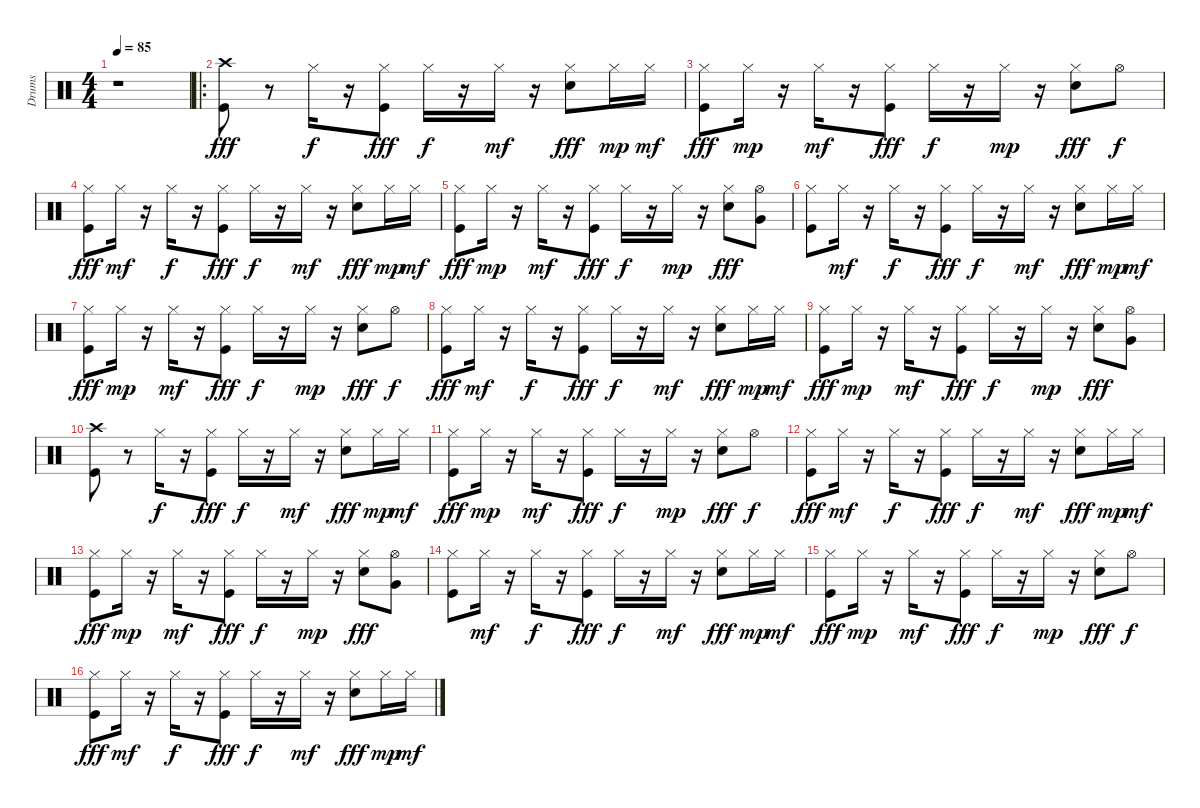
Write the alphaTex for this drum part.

\track ("Drums" "Drums") {instrument percussion}
\staff {score}
\articulation defaults
\ts (4 4)
\tempo 85
\clef neutral
\ks c
r.1{dy fff} |
\ro
("Crash high (hit)" "Kick (hit)").8 r.8 "Hi-Hat (closed)".16{dy f} r.16 ("Hi-Hat (closed)" "Kick (hit)").8{dy fff} "Hi-Hat (closed)".16{dy f} r.16 "Hi-Hat (closed)".16{dy mf} r.16 ("Hi-Hat (closed)" "Electric Snare (hit)").8{dy fff} "Hi-Hat (closed)".16{dy mp} "Hi-Hat (closed)".16{dy mf} |
("Hi-Hat (closed)" "Kick (hit)").8{dy fff} "Hi-Hat (closed)".16{dy mp} r.16 "Hi-Hat (closed)".16{dy mf} r.16 ("Hi-Hat (closed)" "Kick (hit)").8{dy fff} "Hi-Hat (closed)".16{dy f} r.16 "Hi-Hat (closed)".16{dy mp} r.16 ("Hi-Hat (closed)" "Electric Snare (hit)").8{dy fff} "Hi-Hat (open)".8{dy f} |
("Hi-Hat (closed)" "Kick (hit)").8{dy fff} "Hi-Hat (closed)".16{dy mf} r.16 "Hi-Hat (closed)".16{dy f} r.16 ("Hi-Hat (closed)" "Kick (hit)").8{dy fff} "Hi-Hat (closed)".16{dy f} r.16 "Hi-Hat (closed)".16{dy mf} r.16 ("Hi-Hat (closed)" "Electric Snare (hit)").8{dy fff} "Hi-Hat (closed)".16{dy mp} "Hi-Hat (closed)".16{dy mf} |
("Hi-Hat (closed)" "Kick (hit)").8{dy fff} "Hi-Hat (closed)".16{dy mp} r.16 "Hi-Hat (closed)".16{dy mf} r.16 ("Hi-Hat (closed)" "Kick (hit)").8{dy fff} "Hi-Hat (closed)".16{dy f} r.16 "Hi-Hat (closed)".16{dy mp} r.16 ("Hi-Hat (closed)" "Electric Snare (hit)").8{dy fff} ("Hi-Hat (open)" "Very Low Tom (hit)").8 |
("Hi-Hat (closed)" "Kick (hit)").8 "Hi-Hat (closed)".16{dy mf} r.16 "Hi-Hat (closed)".16{dy f} r.16 ("Hi-Hat (closed)" "Kick (hit)").8{dy fff} "Hi-Hat (closed)".16{dy f} r.16 "Hi-Hat (closed)".16{dy mf} r.16 ("Hi-Hat (closed)" "Electric Snare (hit)").8{dy fff} "Hi-Hat (closed)".16{dy mp} "Hi-Hat (closed)".16{dy mf} |
("Hi-Hat (closed)" "Kick (hit)").8{dy fff} "Hi-Hat (closed)".16{dy mp} r.16 "Hi-Hat (closed)".16{dy mf} r.16 ("Hi-Hat (closed)" "Kick (hit)").8{dy fff} "Hi-Hat (closed)".16{dy f} r.16 "Hi-Hat (closed)".16{dy mp} r.16 ("Hi-Hat (closed)" "Electric Snare (hit)").8{dy fff} "Hi-Hat (open)".8{dy f} |
("Hi-Hat (closed)" "Kick (hit)").8{dy fff} "Hi-Hat (closed)".16{dy mf} r.16 "Hi-Hat (closed)".16{dy f} r.16 ("Hi-Hat (closed)" "Kick (hit)").8{dy fff} "Hi-Hat (closed)".16{dy f} r.16 "Hi-Hat (closed)".16{dy mf} r.16 ("Hi-Hat (closed)" "Electric Snare (hit)").8{dy fff} "Hi-Hat (closed)".16{dy mp} "Hi-Hat (closed)".16{dy mf} |
("Hi-Hat (closed)" "Kick (hit)").8{dy fff} "Hi-Hat (closed)".16{dy mp} r.16 "Hi-Hat (closed)".16{dy mf} r.16 ("Hi-Hat (closed)" "Kick (hit)").8{dy fff} "Hi-Hat (closed)".16{dy f} r.16 "Hi-Hat (closed)".16{dy mp} r.16 ("Hi-Hat (closed)" "Electric Snare (hit)").8{dy fff} ("Hi-Hat (open)" "Very Low Tom (hit)").8 |
("Crash high (hit)" "Kick (hit)").8 r.8 "Hi-Hat (closed)".16{dy f} r.16 ("Hi-Hat (closed)" "Kick (hit)").8{dy fff} "Hi-Hat (closed)".16{dy f} r.16 "Hi-Hat (closed)".16{dy mf} r.16 ("Hi-Hat (closed)" "Electric Snare (hit)").8{dy fff} "Hi-Hat (closed)".16{dy mp} "Hi-Hat (closed)".16{dy mf} |
("Hi-Hat (closed)" "Kick (hit)").8{dy fff} "Hi-Hat (closed)".16{dy mp} r.16 "Hi-Hat (closed)".16{dy mf} r.16 ("Hi-Hat (closed)" "Kick (hit)").8{dy fff} "Hi-Hat (closed)".16{dy f} r.16 "Hi-Hat (closed)".16{dy mp} r.16 ("Hi-Hat (closed)" "Electric Snare (hit)").8{dy fff} "Hi-Hat (open)".8{dy f} |
("Hi-Hat (closed)" "Kick (hit)").8{dy fff} "Hi-Hat (closed)".16{dy mf} r.16 "Hi-Hat (closed)".16{dy f} r.16 ("Hi-Hat (closed)" "Kick (hit)").8{dy fff} "Hi-Hat (closed)".16{dy f} r.16 "Hi-Hat (closed)".16{dy mf} r.16 ("Hi-Hat (closed)" "Electric Snare (hit)").8{dy fff} "Hi-Hat (closed)".16{dy mp} "Hi-Hat (closed)".16{dy mf} |
("Hi-Hat (closed)" "Kick (hit)").8{dy fff} "Hi-Hat (closed)".16{dy mp} r.16 "Hi-Hat (closed)".16{dy mf} r.16 ("Hi-Hat (closed)" "Kick (hit)").8{dy fff} "Hi-Hat (closed)".16{dy f} r.16 "Hi-Hat (closed)".16{dy mp} r.16 ("Hi-Hat (closed)" "Electric Snare (hit)").8{dy fff} ("Hi-Hat (open)" "Very Low Tom (hit)").8 |
("Hi-Hat (closed)" "Kick (hit)").8 "Hi-Hat (closed)".16{dy mf} r.16 "Hi-Hat (closed)".16{dy f} r.16 ("Hi-Hat (closed)" "Kick (hit)").8{dy fff} "Hi-Hat (closed)".16{dy f} r.16 "Hi-Hat (closed)".16{dy mf} r.16 ("Hi-Hat (closed)" "Electric Snare (hit)").8{dy fff} "Hi-Hat (closed)".16{dy mp} "Hi-Hat (closed)".16{dy mf} |
("Hi-Hat (closed)" "Kick (hit)").8{dy fff} "Hi-Hat (closed)".16{dy mp} r.16 "Hi-Hat (closed)".16{dy mf} r.16 ("Hi-Hat (closed)" "Kick (hit)").8{dy fff} "Hi-Hat (closed)".16{dy f} r.16 "Hi-Hat (closed)".16{dy mp} r.16 ("Hi-Hat (closed)" "Electric Snare (hit)").8{dy fff} "Hi-Hat (open)".8{dy f} |
("Hi-Hat (closed)" "Kick (hit)").8{dy fff} "Hi-Hat (closed)".16{dy mf} r.16 "Hi-Hat (closed)".16{dy f} r.16 ("Hi-Hat (closed)" "Kick (hit)").8{dy fff} "Hi-Hat (closed)".16{dy f} r.16 "Hi-Hat (closed)".16{dy mf} r.16 ("Hi-Hat (closed)" "Electric Snare (hit)").8{dy fff} "Hi-Hat (closed)".16{dy mp} "Hi-Hat (closed)".16{dy mf}
